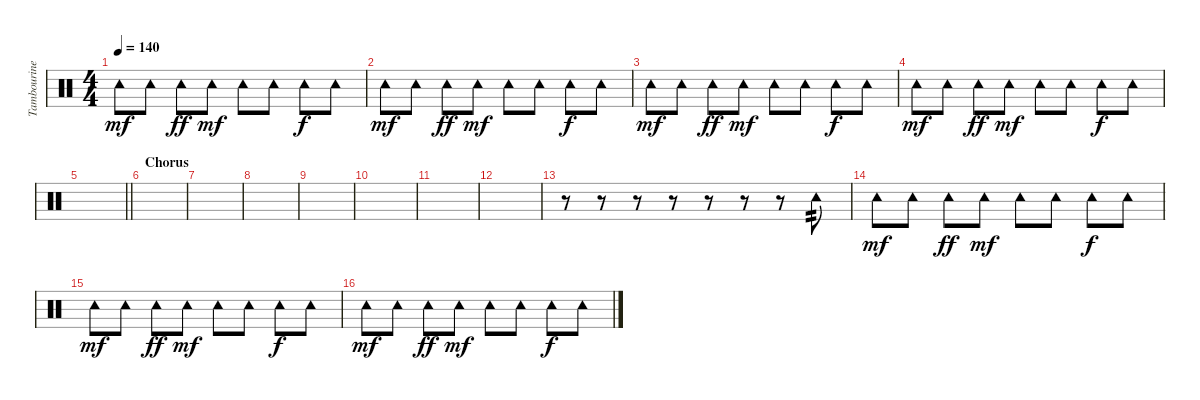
\track ("Tambourine" "Tambourine") {instrument percussion}
\staff {score}
\articulation defaults
\ts (4 4)
\tempo 140
\clef neutral
\ks c "Tambourine (hit)".8{dy mf} "Tambourine (hit)".8 "Tambourine (hit)".8{dy ff} "Tambourine (hit)".8{dy mf} "Tambourine (hit)".8 "Tambourine (hit)".8 "Tambourine (hit)".8{dy f} "Tambourine (hit)".8
|
"Tambourine (hit)".8{dy mf} "Tambourine (hit)".8 "Tambourine (hit)".8{dy ff} "Tambourine (hit)".8{dy mf} "Tambourine (hit)".8 "Tambourine (hit)".8 "Tambourine (hit)".8{dy f} "Tambourine (hit)".8 |
"Tambourine (hit)".8{dy mf} "Tambourine (hit)".8 "Tambourine (hit)".8{dy ff} "Tambourine (hit)".8{dy mf} "Tambourine (hit)".8 "Tambourine (hit)".8 "Tambourine (hit)".8{dy f} "Tambourine (hit)".8 |
"Tambourine (hit)".8{dy mf} "Tambourine (hit)".8 "Tambourine (hit)".8{dy ff} "Tambourine (hit)".8{dy mf} "Tambourine (hit)".8 "Tambourine (hit)".8 "Tambourine (hit)".8{dy f} "Tambourine (hit)".8 |
\barLineRight lightlight
|
\section ("" "Chorus")
|
|
|
|
|
|
|
r.8 r.8 r.8 r.8 r.8 r.8 r.8 "Tambourine (hit)".8{tp 2} |
"Tambourine (hit)".8{dy mf} "Tambourine (hit)".8 "Tambourine (hit)".8{dy ff} "Tambourine (hit)".8{dy mf} "Tambourine (hit)".8 "Tambourine (hit)".8 "Tambourine (hit)".8{dy f} "Tambourine (hit)".8 |
"Tambourine (hit)".8{dy mf} "Tambourine (hit)".8 "Tambourine (hit)".8{dy ff} "Tambourine (hit)".8{dy mf} "Tambourine (hit)".8 "Tambourine (hit)".8 "Tambourine (hit)".8{dy f} "Tambourine (hit)".8 |
"Tambourine (hit)".8{dy mf} "Tambourine (hit)".8 "Tambourine (hit)".8{dy ff} "Tambourine (hit)".8{dy mf} "Tambourine (hit)".8 "Tambourine (hit)".8 "Tambourine (hit)".8{dy f} "Tambourine (hit)".8
